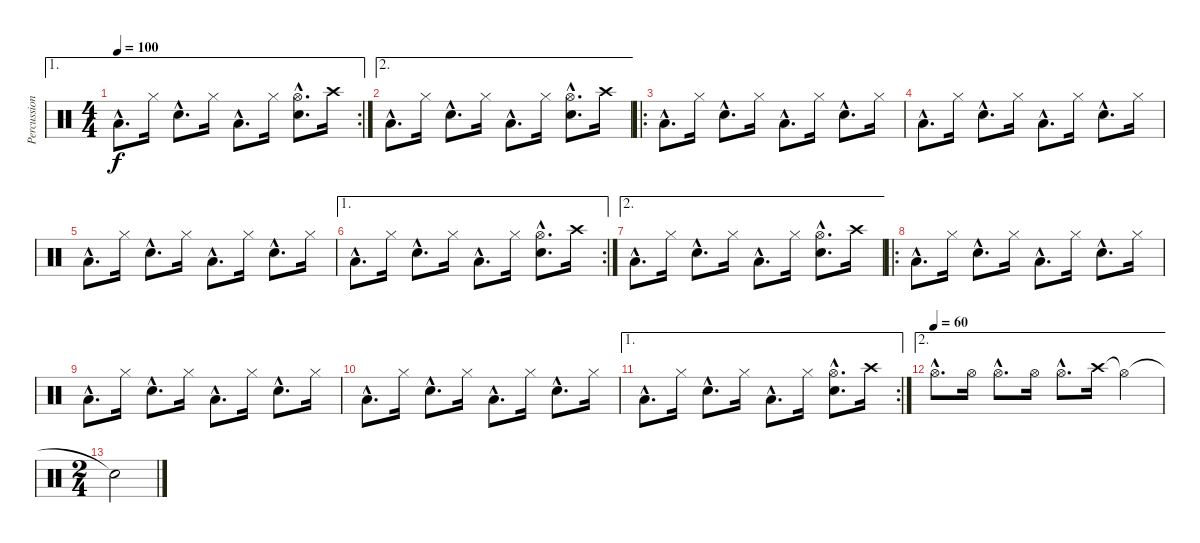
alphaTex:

\track ("Percussions" "Percussion") {instrument percussion}
\staff {score}
\articulation defaults
\ae 1
\rc 2
\ts (4 4)
\tempo 100
\clef neutral
\ks c "Low Floor Tom (hit)"{hac}.8{d dy f} "Hi-Hat (closed)".16 "Electric Snare (hit)"{hac}.8{d} "Hi-Hat (closed)".16 "Low Floor Tom (hit)"{hac}.8{d} "Hi-Hat (closed)".16
("Hi-Hat (open)"{hac} "Electric Snare (hit)"{hac}).8{d} "Crash high (hit)".16 |
\ae 2 "Low Floor Tom (hit)"{hac}.8{d} "Hi-Hat (closed)".16 "Electric Snare (hit)"{hac}.8{d} "Hi-Hat (closed)".16 "Low Floor Tom (hit)"{hac}.8{d} "Hi-Hat (closed)".16
("Hi-Hat (open)"{hac} "Electric Snare (hit)"{hac}).8{d} "Crash high (hit)".16 |
\ro "Low Floor Tom (hit)"{hac}.8{d} "Hi-Hat (closed)".16 "Electric Snare (hit)"{hac}.8{d} "Hi-Hat (closed)".16 "Low Floor Tom (hit)"{hac}.8{d} "Hi-Hat (closed)".16 "Electric Snare (hit)"{hac}.8{d} "Hi-Hat (closed)".16
|
"Low Floor Tom (hit)"{hac}.8{d} "Hi-Hat (closed)".16 "Electric Snare (hit)"{hac}.8{d} "Hi-Hat (closed)".16 "Low Floor Tom (hit)"{hac}.8{d} "Hi-Hat (closed)".16 "Electric Snare (hit)"{hac}.8{d} "Hi-Hat (closed)".16 |
"Low Floor Tom (hit)"{hac}.8{d} "Hi-Hat (closed)".16 "Electric Snare (hit)"{hac}.8{d} "Hi-Hat (closed)".16 "Low Floor Tom (hit)"{hac}.8{d} "Hi-Hat (closed)".16 "Electric Snare (hit)"{hac}.8{d} "Hi-Hat (closed)".16 |
\ae 1
\rc 2 "Low Floor Tom (hit)"{hac}.8{d} "Hi-Hat (closed)".16 "Electric Snare (hit)"{hac}.8{d} "Hi-Hat (closed)".16 "Low Floor Tom (hit)"{hac}.8{d} "Hi-Hat (closed)".16
("Hi-Hat (open)"{hac} "Electric Snare (hit)"{hac}).8{d} "Crash high (hit)".16 |
\ae 2 "Low Floor Tom (hit)"{hac}.8{d} "Hi-Hat (closed)".16 "Electric Snare (hit)"{hac}.8{d} "Hi-Hat (closed)".16 "Low Floor Tom (hit)"{hac}.8{d} "Hi-Hat (closed)".16
("Hi-Hat (open)"{hac} "Electric Snare (hit)"{hac}).8{d} "Crash high (hit)".16 |
\ro "Low Floor Tom (hit)"{hac}.8{d} "Hi-Hat (closed)".16 "Electric Snare (hit)"{hac}.8{d} "Hi-Hat (closed)".16 "Low Floor Tom (hit)"{hac}.8{d} "Hi-Hat (closed)".16 "Electric Snare (hit)"{hac}.8{d} "Hi-Hat (closed)".16
|
"Low Floor Tom (hit)"{hac}.8{d} "Hi-Hat (closed)".16 "Electric Snare (hit)"{hac}.8{d} "Hi-Hat (closed)".16 "Low Floor Tom (hit)"{hac}.8{d} "Hi-Hat (closed)".16 "Electric Snare (hit)"{hac}.8{d} "Hi-Hat (closed)".16 |
"Low Floor Tom (hit)"{hac}.8{d} "Hi-Hat (closed)".16 "Electric Snare (hit)"{hac}.8{d} "Hi-Hat (closed)".16 "Low Floor Tom (hit)"{hac}.8{d} "Hi-Hat (closed)".16 "Electric Snare (hit)"{hac}.8{d} "Hi-Hat (closed)".16 |
\ae 1
\rc 2 "Low Floor Tom (hit)"{hac}.8{d} "Hi-Hat (closed)".16 "Electric Snare (hit)"{hac}.8{d} "Hi-Hat (closed)".16 "Low Floor Tom (hit)"{hac}.8{d} "Hi-Hat (closed)".16
("Hi-Hat (open)"{hac} "Electric Snare (hit)"{hac}).8{d} "Crash high (hit)".16 |
\ae 2
\tempo (60)
"Hi-Hat (open)"{hac}.8{d} "Hi-Hat (open)".16 "Hi-Hat (open)"{hac}.8{d} "Hi-Hat (open)".16 "Hi-Hat (open)"{hac}.8{d} "Crash high (hit)".16 "Hi-Hat (open)"{t}.4 |
\ts (2 4)
"Snare (hit)"{t}.2
